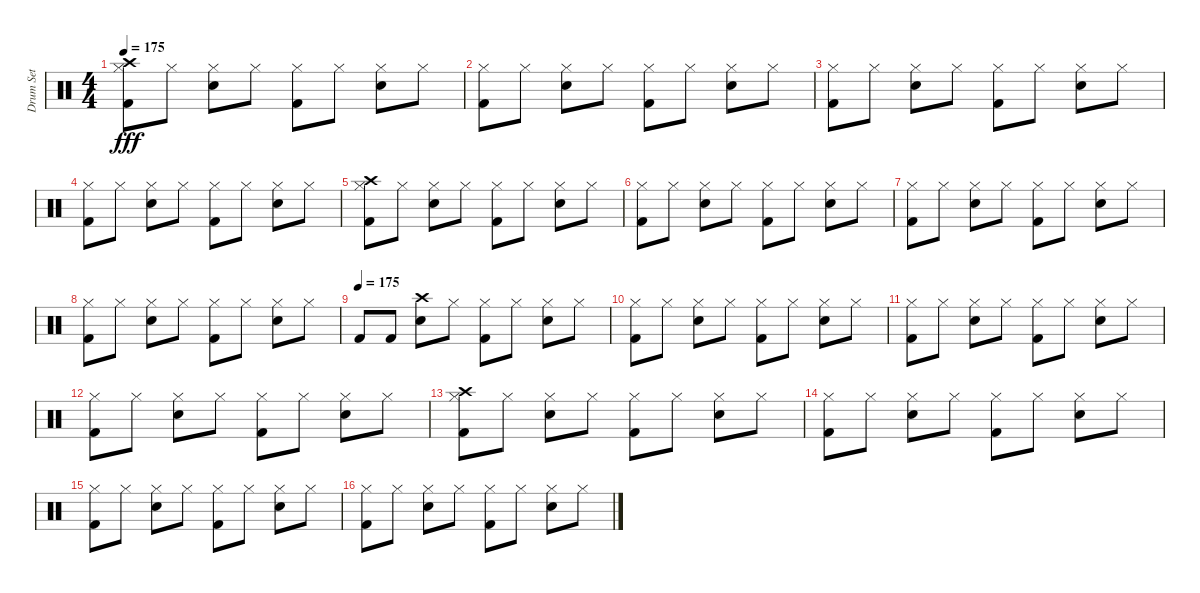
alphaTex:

\track ("Drum Set" "Drum Set") {instrument percussion}
\staff {score}
\articulation defaults
\ts (4 4)
\tempo 175
\clef neutral
\ks c
("Kick (hit) 2" "Hi-Hat (closed)" "Crash high (hit)").8{dy fff} "Hi-Hat (closed)".8 ("Electric Snare (hit)" "Hi-Hat (closed)").8 "Hi-Hat (closed)".8 ("Kick (hit) 2" "Hi-Hat (closed)").8 "Hi-Hat (closed)".8 ("Electric Snare (hit)" "Hi-Hat (closed)").8 "Hi-Hat (closed)".8 |
("Kick (hit) 2" "Hi-Hat (closed)").8 "Hi-Hat (closed)".8 ("Electric Snare (hit)" "Hi-Hat (closed)").8 "Hi-Hat (closed)".8 ("Kick (hit) 2" "Hi-Hat (closed)").8 "Hi-Hat (closed)".8 ("Electric Snare (hit)" "Hi-Hat (closed)").8 "Hi-Hat (closed)".8 |
("Kick (hit) 2" "Hi-Hat (closed)").8 "Hi-Hat (closed)".8 ("Electric Snare (hit)" "Hi-Hat (closed)").8 "Hi-Hat (closed)".8 ("Kick (hit) 2" "Hi-Hat (closed)").8 "Hi-Hat (closed)".8 ("Electric Snare (hit)" "Hi-Hat (closed)").8 "Hi-Hat (closed)".8 |
("Kick (hit) 2" "Hi-Hat (closed)").8 "Hi-Hat (closed)".8 ("Electric Snare (hit)" "Hi-Hat (closed)").8 "Hi-Hat (closed)".8 ("Kick (hit) 2" "Hi-Hat (closed)").8 "Hi-Hat (closed)".8 ("Electric Snare (hit)" "Hi-Hat (closed)").8 "Hi-Hat (closed)".8 |
("Kick (hit) 2" "Hi-Hat (closed)" "Crash high (hit)").8 "Hi-Hat (closed)".8 ("Electric Snare (hit)" "Hi-Hat (closed)").8 "Hi-Hat (closed)".8 ("Kick (hit) 2" "Hi-Hat (closed)").8 "Hi-Hat (closed)".8 ("Electric Snare (hit)" "Hi-Hat (closed)").8 "Hi-Hat (closed)".8 |
("Kick (hit) 2" "Hi-Hat (closed)").8 "Hi-Hat (closed)".8 ("Electric Snare (hit)" "Hi-Hat (closed)").8 "Hi-Hat (closed)".8 ("Kick (hit) 2" "Hi-Hat (closed)").8 "Hi-Hat (closed)".8 ("Electric Snare (hit)" "Hi-Hat (closed)").8 "Hi-Hat (closed)".8 |
("Kick (hit) 2" "Hi-Hat (closed)").8 "Hi-Hat (closed)".8 ("Electric Snare (hit)" "Hi-Hat (closed)").8 "Hi-Hat (closed)".8 ("Kick (hit) 2" "Hi-Hat (closed)").8 "Hi-Hat (closed)".8 ("Electric Snare (hit)" "Hi-Hat (closed)").8 "Hi-Hat (closed)".8 |
("Kick (hit) 2" "Hi-Hat (closed)").8 "Hi-Hat (closed)".8 ("Electric Snare (hit)" "Hi-Hat (closed)").8 "Hi-Hat (closed)".8 ("Kick (hit) 2" "Hi-Hat (closed)").8 "Hi-Hat (closed)".8 ("Electric Snare (hit)" "Hi-Hat (closed)").8 "Hi-Hat (closed)".8 |
\tempo (175)
"Kick (hit) 2".8 "Kick (hit) 2".8 ("Electric Snare (hit)" "Crash high (hit)").8 "Hi-Hat (closed)".8 ("Kick (hit) 2" "Hi-Hat (closed)").8 "Hi-Hat (closed)".8 ("Electric Snare (hit)" "Hi-Hat (closed)").8 "Hi-Hat (closed)".8 |
("Kick (hit) 2" "Hi-Hat (closed)").8 "Hi-Hat (closed)".8 ("Electric Snare (hit)" "Hi-Hat (closed)").8 "Hi-Hat (closed)".8 ("Kick (hit) 2" "Hi-Hat (closed)").8 "Hi-Hat (closed)".8 ("Electric Snare (hit)" "Hi-Hat (closed)").8 "Hi-Hat (closed)".8 |
("Kick (hit) 2" "Hi-Hat (closed)").8 "Hi-Hat (closed)".8 ("Electric Snare (hit)" "Hi-Hat (closed)").8 "Hi-Hat (closed)".8 ("Kick (hit) 2" "Hi-Hat (closed)").8 "Hi-Hat (closed)".8 ("Electric Snare (hit)" "Hi-Hat (closed)").8 "Hi-Hat (closed)".8 |
("Kick (hit) 2" "Hi-Hat (closed)").8 "Hi-Hat (closed)".8 ("Electric Snare (hit)" "Hi-Hat (closed)").8 "Hi-Hat (closed)".8 ("Kick (hit) 2" "Hi-Hat (closed)").8 "Hi-Hat (closed)".8 ("Electric Snare (hit)" "Hi-Hat (closed)").8 "Hi-Hat (closed)".8 |
("Kick (hit) 2" "Crash high (hit)" "Hi-Hat (closed)").8 "Hi-Hat (closed)".8 ("Electric Snare (hit)" "Hi-Hat (closed)").8 "Hi-Hat (closed)".8 ("Kick (hit) 2" "Hi-Hat (closed)").8 "Hi-Hat (closed)".8 ("Electric Snare (hit)" "Hi-Hat (closed)").8 "Hi-Hat (closed)".8 |
("Kick (hit) 2" "Hi-Hat (closed)").8 "Hi-Hat (closed)".8 ("Electric Snare (hit)" "Hi-Hat (closed)").8 "Hi-Hat (closed)".8 ("Kick (hit) 2" "Hi-Hat (closed)").8 "Hi-Hat (closed)".8 ("Electric Snare (hit)" "Hi-Hat (closed)").8 "Hi-Hat (closed)".8 |
("Kick (hit) 2" "Hi-Hat (closed)").8 "Hi-Hat (closed)".8 ("Electric Snare (hit)" "Hi-Hat (closed)").8 "Hi-Hat (closed)".8 ("Kick (hit) 2" "Hi-Hat (closed)").8 "Hi-Hat (closed)".8 ("Electric Snare (hit)" "Hi-Hat (closed)").8 "Hi-Hat (closed)".8 |
("Kick (hit) 2" "Hi-Hat (closed)").8 "Hi-Hat (closed)".8 ("Electric Snare (hit)" "Hi-Hat (closed)").8 "Hi-Hat (closed)".8 ("Kick (hit) 2" "Hi-Hat (closed)").8 "Hi-Hat (closed)".8 ("Electric Snare (hit)" "Hi-Hat (closed)").8 "Hi-Hat (closed)".8
